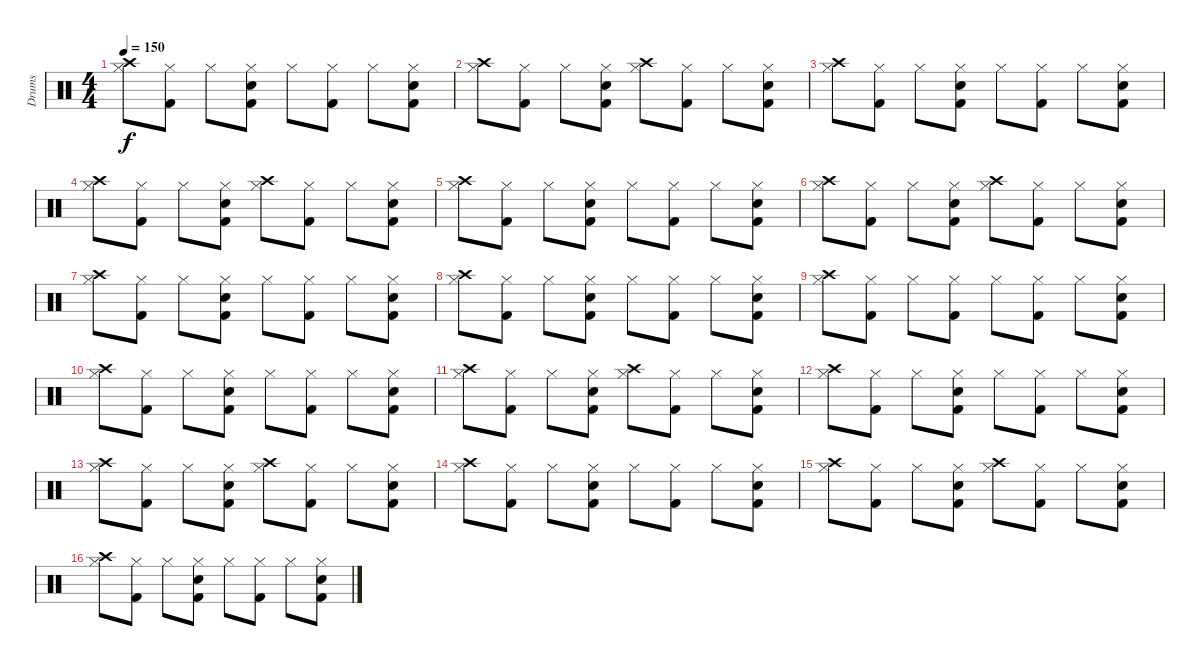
\track ("Drums" "Drums") {instrument percussion}
\staff {score}
\articulation defaults
\ts (4 4)
\tempo 150
\clef neutral
\ks c
("Crash high (hit)" "Hi-Hat (closed)").8{dy f} ("Kick (hit) 2" "Hi-Hat (closed)").8 "Hi-Hat (closed)".8 ("Electric Snare (hit)" "Kick (hit) 2" "Hi-Hat (closed)").8 "Hi-Hat (closed)".8 ("Kick (hit) 2" "Hi-Hat (closed)").8 "Hi-Hat (closed)".8 ("Electric Snare (hit)" "Kick (hit) 2" "Hi-Hat (closed)").8 |
("Crash high (hit)" "Hi-Hat (closed)").8 ("Kick (hit) 2" "Hi-Hat (closed)").8 "Hi-Hat (closed)".8 ("Electric Snare (hit)" "Kick (hit) 2" "Hi-Hat (closed)").8 ("Crash high (hit)" "Hi-Hat (closed)").8 ("Kick (hit) 2" "Hi-Hat (closed)").8 "Hi-Hat (closed)".8 ("Electric Snare (hit)" "Kick (hit) 2" "Hi-Hat (closed)").8 |
("Crash high (hit)" "Hi-Hat (closed)").8 ("Kick (hit) 2" "Hi-Hat (closed)").8 "Hi-Hat (closed)".8 ("Electric Snare (hit)" "Kick (hit) 2" "Hi-Hat (closed)").8 "Hi-Hat (closed)".8 ("Kick (hit) 2" "Hi-Hat (closed)").8 "Hi-Hat (closed)".8 ("Electric Snare (hit)" "Kick (hit) 2" "Hi-Hat (closed)").8 |
("Crash high (hit)" "Hi-Hat (closed)").8 ("Kick (hit) 2" "Hi-Hat (closed)").8 "Hi-Hat (closed)".8 ("Electric Snare (hit)" "Kick (hit) 2" "Hi-Hat (closed)").8 ("Crash high (hit)" "Hi-Hat (closed)").8 ("Kick (hit) 2" "Hi-Hat (closed)").8 "Hi-Hat (closed)".8 ("Electric Snare (hit)" "Kick (hit) 2" "Hi-Hat (closed)").8 |
("Crash high (hit)" "Hi-Hat (closed)").8 ("Kick (hit) 2" "Hi-Hat (closed)").8 "Hi-Hat (closed)".8 ("Electric Snare (hit)" "Kick (hit) 2" "Hi-Hat (closed)").8 "Hi-Hat (closed)".8 ("Kick (hit) 2" "Hi-Hat (closed)").8 "Hi-Hat (closed)".8 ("Electric Snare (hit)" "Kick (hit) 2" "Hi-Hat (closed)").8 |
("Crash high (hit)" "Hi-Hat (closed)").8 ("Kick (hit) 2" "Hi-Hat (closed)").8 "Hi-Hat (closed)".8 ("Electric Snare (hit)" "Kick (hit) 2" "Hi-Hat (closed)").8 ("Crash high (hit)" "Hi-Hat (closed)").8 ("Kick (hit) 2" "Hi-Hat (closed)").8 "Hi-Hat (closed)".8 ("Electric Snare (hit)" "Kick (hit) 2" "Hi-Hat (closed)").8 |
("Crash high (hit)" "Hi-Hat (closed)").8 ("Kick (hit) 2" "Hi-Hat (closed)").8 "Hi-Hat (closed)".8 ("Electric Snare (hit)" "Kick (hit) 2" "Hi-Hat (closed)").8 "Hi-Hat (closed)".8 ("Kick (hit) 2" "Hi-Hat (closed)").8 "Hi-Hat (closed)".8 ("Electric Snare (hit)" "Kick (hit) 2" "Hi-Hat (closed)").8 |
("Crash high (hit)" "Hi-Hat (closed)").8 ("Kick (hit) 2" "Hi-Hat (closed)").8 "Hi-Hat (closed)".8 ("Electric Snare (hit)" "Kick (hit) 2" "Hi-Hat (closed)").8 "Hi-Hat (closed)".8 ("Kick (hit) 2" "Hi-Hat (closed)").8 "Hi-Hat (closed)".8 ("Electric Snare (hit)" "Kick (hit) 2" "Hi-Hat (closed)").8 |
("Crash high (hit)" "Hi-Hat (closed)").8 ("Kick (hit) 2" "Hi-Hat (closed)").8 "Hi-Hat (closed)".8 ("Kick (hit) 2" "Hi-Hat (closed)").8 "Hi-Hat (closed)".8 ("Kick (hit) 2" "Hi-Hat (closed)").8 "Hi-Hat (closed)".8 ("Electric Snare (hit)" "Kick (hit) 2" "Hi-Hat (closed)").8 |
("Crash high (hit)" "Hi-Hat (closed)").8 ("Kick (hit) 2" "Hi-Hat (closed)").8 "Hi-Hat (closed)".8 ("Electric Snare (hit)" "Kick (hit) 2" "Hi-Hat (closed)").8 "Hi-Hat (closed)".8 ("Kick (hit) 2" "Hi-Hat (closed)").8 "Hi-Hat (closed)".8 ("Electric Snare (hit)" "Kick (hit) 2" "Hi-Hat (closed)").8 |
("Crash high (hit)" "Hi-Hat (closed)").8 ("Kick (hit) 2" "Hi-Hat (closed)").8 "Hi-Hat (closed)".8 ("Electric Snare (hit)" "Kick (hit) 2" "Hi-Hat (closed)").8 ("Crash high (hit)" "Hi-Hat (closed)").8 ("Kick (hit) 2" "Hi-Hat (closed)").8 "Hi-Hat (closed)".8 ("Electric Snare (hit)" "Kick (hit) 2" "Hi-Hat (closed)").8 |
("Crash high (hit)" "Hi-Hat (closed)").8 ("Kick (hit) 2" "Hi-Hat (closed)").8 "Hi-Hat (closed)".8 ("Electric Snare (hit)" "Kick (hit) 2" "Hi-Hat (closed)").8 "Hi-Hat (closed)".8 ("Kick (hit) 2" "Hi-Hat (closed)").8 "Hi-Hat (closed)".8 ("Electric Snare (hit)" "Kick (hit) 2" "Hi-Hat (closed)").8 |
("Crash high (hit)" "Hi-Hat (closed)").8 ("Kick (hit) 2" "Hi-Hat (closed)").8 "Hi-Hat (closed)".8 ("Electric Snare (hit)" "Kick (hit) 2" "Hi-Hat (closed)").8 ("Crash high (hit)" "Hi-Hat (closed)").8 ("Kick (hit) 2" "Hi-Hat (closed)").8 "Hi-Hat (closed)".8 ("Electric Snare (hit)" "Kick (hit) 2" "Hi-Hat (closed)").8 |
("Crash high (hit)" "Hi-Hat (closed)").8 ("Kick (hit) 2" "Hi-Hat (closed)").8 "Hi-Hat (closed)".8 ("Electric Snare (hit)" "Kick (hit) 2" "Hi-Hat (closed)").8 "Hi-Hat (closed)".8 ("Kick (hit) 2" "Hi-Hat (closed)").8 "Hi-Hat (closed)".8 ("Electric Snare (hit)" "Kick (hit) 2" "Hi-Hat (closed)").8 |
("Crash high (hit)" "Hi-Hat (closed)").8 ("Kick (hit) 2" "Hi-Hat (closed)").8 "Hi-Hat (closed)".8 ("Electric Snare (hit)" "Kick (hit) 2" "Hi-Hat (closed)").8 ("Crash high (hit)" "Hi-Hat (closed)").8 ("Kick (hit) 2" "Hi-Hat (closed)").8 "Hi-Hat (closed)".8 ("Electric Snare (hit)" "Kick (hit) 2" "Hi-Hat (closed)").8 |
("Crash high (hit)" "Hi-Hat (closed)").8 ("Kick (hit) 2" "Hi-Hat (closed)").8 "Hi-Hat (closed)".8 ("Electric Snare (hit)" "Kick (hit) 2" "Hi-Hat (closed)").8 "Hi-Hat (closed)".8 ("Kick (hit) 2" "Hi-Hat (closed)").8 "Hi-Hat (closed)".8 ("Electric Snare (hit)" "Kick (hit) 2" "Hi-Hat (closed)").8
